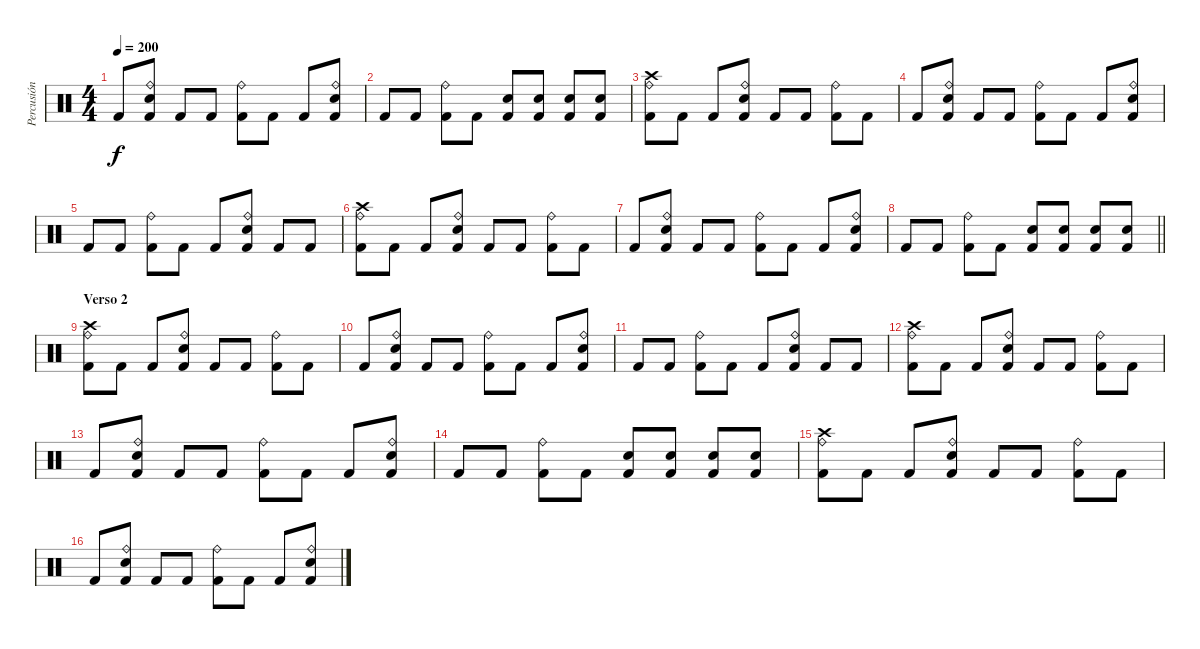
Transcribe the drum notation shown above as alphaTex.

\track ("Percusión" "Percusión") {instrument percussion}
\staff {score}
\articulation defaults
\ts (4 4)
\tempo 200
\clef neutral
\ks c "Kick (hit) 2".8{dy f}
("Ride (bell)" "Snare (hit) 2" "Kick (hit) 2").8 "Kick (hit) 2".8 "Kick (hit) 2".8 ("Ride (bell)" "Kick (hit) 2").8 "Kick (hit) 2".8 "Kick (hit) 2".8 ("Ride (bell)" "Snare (hit) 2" "Kick (hit) 2").8 |
"Kick (hit) 2".8 "Kick (hit) 2".8 ("Ride (bell)" "Kick (hit) 2").8 "Kick (hit) 2".8 ("Snare (hit) 2" "Kick (hit) 2").8 ("Snare (hit) 2" "Kick (hit) 2").8 ("Snare (hit) 2" "Kick (hit) 2").8 ("Snare (hit) 2" "Kick (hit) 2").8 |
("Ride (bell)" "Crash high (hit)" "Kick (hit) 2").8 "Kick (hit) 2".8 "Kick (hit) 2".8 ("Ride (bell)" "Snare (hit) 2" "Kick (hit) 2").8 "Kick (hit) 2".8 "Kick (hit) 2".8 ("Ride (bell)" "Kick (hit) 2").8 "Kick (hit) 2".8 |
"Kick (hit) 2".8 ("Ride (bell)" "Snare (hit) 2" "Kick (hit) 2").8 "Kick (hit) 2".8 "Kick (hit) 2".8 ("Ride (bell)" "Kick (hit) 2").8 "Kick (hit) 2".8 "Kick (hit) 2".8 ("Ride (bell)" "Snare (hit) 2" "Kick (hit) 2").8 |
"Kick (hit) 2".8 "Kick (hit) 2".8 ("Ride (bell)" "Kick (hit) 2").8 "Kick (hit) 2".8 "Kick (hit) 2".8 ("Ride (bell)" "Snare (hit) 2" "Kick (hit) 2").8 "Kick (hit) 2".8 "Kick (hit) 2".8 |
("Ride (bell)" "Crash high (hit)" "Kick (hit) 2").8 "Kick (hit) 2".8 "Kick (hit) 2".8 ("Ride (bell)" "Snare (hit) 2" "Kick (hit) 2").8 "Kick (hit) 2".8 "Kick (hit) 2".8 ("Ride (bell)" "Kick (hit) 2").8 "Kick (hit) 2".8 |
"Kick (hit) 2".8 ("Ride (bell)" "Snare (hit) 2" "Kick (hit) 2").8 "Kick (hit) 2".8 "Kick (hit) 2".8 ("Ride (bell)" "Kick (hit) 2").8 "Kick (hit) 2".8 "Kick (hit) 2".8 ("Ride (bell)" "Snare (hit) 2" "Kick (hit) 2").8 |
\barLineRight lightlight "Kick (hit) 2".8 "Kick (hit) 2".8
("Ride (bell)" "Kick (hit) 2").8 "Kick (hit) 2".8 ("Snare (hit) 2" "Kick (hit) 2").8 ("Snare (hit) 2" "Kick (hit) 2").8 ("Snare (hit) 2" "Kick (hit) 2").8 ("Snare (hit) 2" "Kick (hit) 2").8 |
\section ("" "Verso 2")
("Ride (bell)" "Crash high (hit)" "Kick (hit) 2").8 "Kick (hit) 2".8 "Kick (hit) 2".8 ("Ride (bell)" "Snare (hit) 2" "Kick (hit) 2").8 "Kick (hit) 2".8 "Kick (hit) 2".8 ("Ride (bell)" "Kick (hit) 2").8 "Kick (hit) 2".8 |
"Kick (hit) 2".8 ("Ride (bell)" "Snare (hit) 2" "Kick (hit) 2").8 "Kick (hit) 2".8 "Kick (hit) 2".8 ("Ride (bell)" "Kick (hit) 2").8 "Kick (hit) 2".8 "Kick (hit) 2".8 ("Ride (bell)" "Snare (hit) 2" "Kick (hit) 2").8 |
"Kick (hit) 2".8 "Kick (hit) 2".8 ("Ride (bell)" "Kick (hit) 2").8 "Kick (hit) 2".8 "Kick (hit) 2".8 ("Ride (bell)" "Snare (hit) 2" "Kick (hit) 2").8 "Kick (hit) 2".8 "Kick (hit) 2".8 |
("Ride (bell)" "Crash high (hit)" "Kick (hit) 2").8 "Kick (hit) 2".8 "Kick (hit) 2".8 ("Ride (bell)" "Snare (hit) 2" "Kick (hit) 2").8 "Kick (hit) 2".8 "Kick (hit) 2".8 ("Ride (bell)" "Kick (hit) 2").8 "Kick (hit) 2".8 |
"Kick (hit) 2".8 ("Ride (bell)" "Snare (hit) 2" "Kick (hit) 2").8 "Kick (hit) 2".8 "Kick (hit) 2".8 ("Ride (bell)" "Kick (hit) 2").8 "Kick (hit) 2".8 "Kick (hit) 2".8 ("Ride (bell)" "Snare (hit) 2" "Kick (hit) 2").8 |
"Kick (hit) 2".8 "Kick (hit) 2".8 ("Ride (bell)" "Kick (hit) 2").8 "Kick (hit) 2".8 ("Snare (hit) 2" "Kick (hit) 2").8 ("Snare (hit) 2" "Kick (hit) 2").8 ("Snare (hit) 2" "Kick (hit) 2").8 ("Snare (hit) 2" "Kick (hit) 2").8 |
("Ride (bell)" "Crash high (hit)" "Kick (hit) 2").8 "Kick (hit) 2".8 "Kick (hit) 2".8 ("Ride (bell)" "Snare (hit) 2" "Kick (hit) 2").8 "Kick (hit) 2".8 "Kick (hit) 2".8 ("Ride (bell)" "Kick (hit) 2").8 "Kick (hit) 2".8 |
"Kick (hit) 2".8 ("Ride (bell)" "Snare (hit) 2" "Kick (hit) 2").8 "Kick (hit) 2".8 "Kick (hit) 2".8 ("Ride (bell)" "Kick (hit) 2").8 "Kick (hit) 2".8 "Kick (hit) 2".8 ("Ride (bell)" "Snare (hit) 2" "Kick (hit) 2").8
